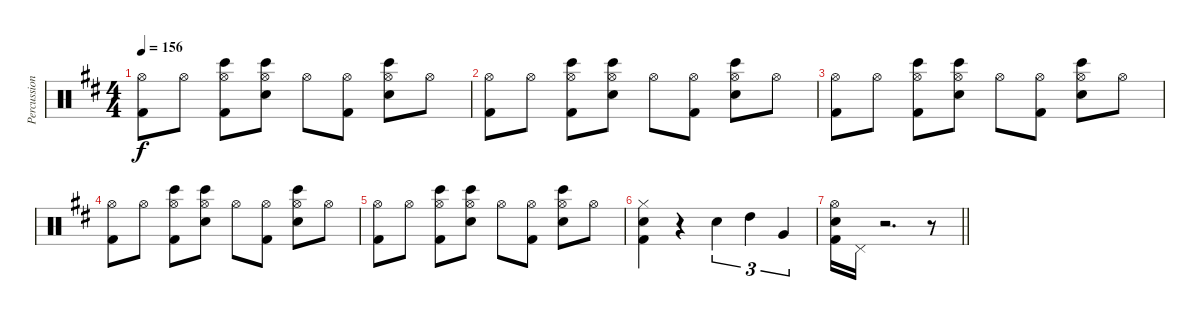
\track ("Percussion" "Percussion") {instrument percussion}
\staff {score}
\articulation defaults
\ts (4 4)
\tempo 156
\clef neutral
\ks d
("Hi-Hat (open)" "Kick (hit) 2").8{dy f} "Hi-Hat (open)".8 ("Bongo High (hit)" "Hi-Hat (open)" "Kick (hit) 2").8 ("Bongo High (hit)" "Hi-Hat (open)" "Electric Snare (hit)").8 "Hi-Hat (open)".8 ("Hi-Hat (open)" "Kick (hit) 2").8 ("Bongo High (hit)" "Hi-Hat (open)" "Electric Snare (hit)").8 "Hi-Hat (open)".8 |
("Hi-Hat (open)" "Kick (hit) 2").8 "Hi-Hat (open)".8 ("Bongo High (hit)" "Hi-Hat (open)" "Kick (hit) 2").8 ("Bongo High (hit)" "Hi-Hat (open)" "Electric Snare (hit)").8 "Hi-Hat (open)".8 ("Hi-Hat (open)" "Kick (hit) 2").8 ("Bongo High (hit)" "Hi-Hat (open)" "Electric Snare (hit)").8 "Hi-Hat (open)".8 |
("Hi-Hat (open)" "Kick (hit) 2").8 "Hi-Hat (open)".8 ("Bongo High (hit)" "Hi-Hat (open)" "Kick (hit) 2").8 ("Bongo High (hit)" "Hi-Hat (open)" "Electric Snare (hit)").8 "Hi-Hat (open)".8 ("Hi-Hat (open)" "Kick (hit) 2").8 ("Bongo High (hit)" "Hi-Hat (open)" "Electric Snare (hit)").8 "Hi-Hat (open)".8 |
("Hi-Hat (open)" "Kick (hit) 2").8 "Hi-Hat (open)".8 ("Bongo High (hit)" "Hi-Hat (open)" "Kick (hit) 2").8 ("Bongo High (hit)" "Hi-Hat (open)" "Electric Snare (hit)").8 "Hi-Hat (open)".8 ("Hi-Hat (open)" "Kick (hit) 2").8 ("Bongo High (hit)" "Hi-Hat (open)" "Electric Snare (hit)").8 "Hi-Hat (open)".8 |
("Hi-Hat (open)" "Kick (hit) 2").8 "Hi-Hat (open)".8 ("Bongo High (hit)" "Hi-Hat (open)" "Kick (hit) 2").8 ("Bongo High (hit)" "Hi-Hat (open)" "Electric Snare (hit)").8 "Hi-Hat (open)".8 ("Hi-Hat (open)" "Kick (hit) 2").8 ("Bongo High (hit)" "Hi-Hat (open)" "Electric Snare (hit)").8 "Hi-Hat (open)".8 |
("Hi-Hat (closed)" "Electric Snare (hit)" "Kick (hit) 2").4 r.4 "Electric Snare (hit)".4{tu (3 2)} "High Tom (hit)".4{tu (3 2)} "Very Low Tom (hit)".4{tu (3 2)} |
\barLineRight lightlight
("Hi-Hat (open)" "Electric Snare (hit)" "Kick (hit) 2").16 "Pedal Hi-Hat (hit)".16 r.2{d} r.8
